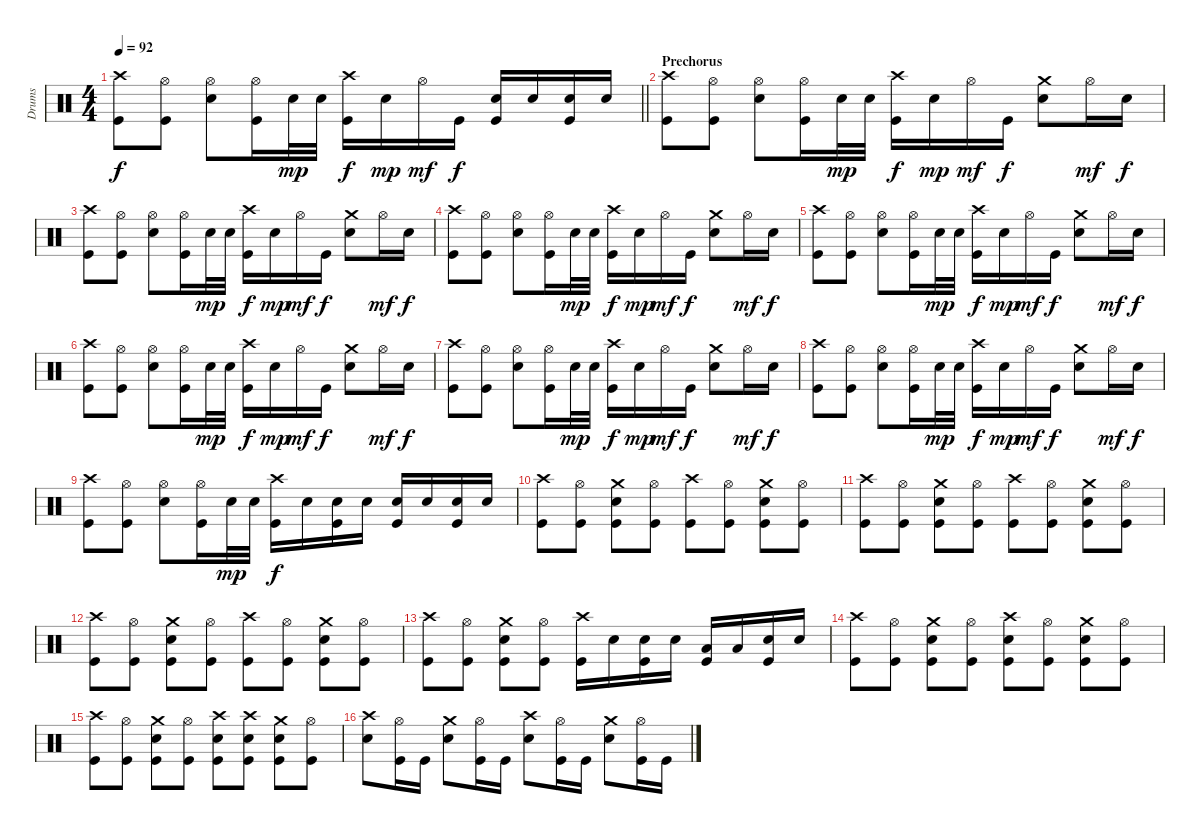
\track ("Drums" "Drums") {instrument percussion}
\staff {score}
\articulation defaults
\ts (4 4)
\tempo 92
\clef neutral
\barLineRight lightlight
\ks c
("Crash high (hit)" "Kick (hit)").8{dy f} ("Hi-Hat (open)" "Kick (hit)").8 ("Hi-Hat (open)" "Electric Snare (hit)").8 ("Hi-Hat (open)" "Kick (hit)").16 "Electric Snare (hit)".32{dy mp} "Electric Snare (hit)".32 ("Crash high (hit)" "Kick (hit)").16{dy f} "Electric Snare (hit)".16{dy mp} "Hi-Hat (open)".16{dy mf} "Kick (hit)".16{dy f} ("Electric Snare (hit)" "Kick (hit)").16 "Electric Snare (hit)".16 ("Electric Snare (hit)" "Kick (hit)").16 "Electric Snare (hit)".16 |
\section ("" "Prechorus")
("Crash high (hit)" "Kick (hit)").8 ("Hi-Hat (open)" "Kick (hit)").8 ("Hi-Hat (open)" "Electric Snare (hit)").8 ("Hi-Hat (open)" "Kick (hit)").16 "Electric Snare (hit)".32{dy mp} "Electric Snare (hit)".32 ("Crash high (hit)" "Kick (hit)").16{dy f} "Electric Snare (hit)".16{dy mp} "Hi-Hat (open)".16{dy mf} "Kick (hit)".16{dy f} ("Crash medium (hit)" "Electric Snare (hit)").8 "Hi-Hat (open)".16{dy mf} "Electric Snare (hit)".16{dy f} |
("Crash high (hit)" "Kick (hit)").8 ("Hi-Hat (open)" "Kick (hit)").8 ("Hi-Hat (open)" "Electric Snare (hit)").8 ("Hi-Hat (open)" "Kick (hit)").16 "Electric Snare (hit)".32{dy mp} "Electric Snare (hit)".32 ("Crash high (hit)" "Kick (hit)").16{dy f} "Electric Snare (hit)".16{dy mp} "Hi-Hat (open)".16{dy mf} "Kick (hit)".16{dy f} ("Crash medium (hit)" "Electric Snare (hit)").8 "Hi-Hat (open)".16{dy mf} "Electric Snare (hit)".16{dy f} |
("Crash high (hit)" "Kick (hit)").8 ("Hi-Hat (open)" "Kick (hit)").8 ("Hi-Hat (open)" "Electric Snare (hit)").8 ("Hi-Hat (open)" "Kick (hit)").16 "Electric Snare (hit)".32{dy mp} "Electric Snare (hit)".32 ("Crash high (hit)" "Kick (hit)").16{dy f} "Electric Snare (hit)".16{dy mp} "Hi-Hat (open)".16{dy mf} "Kick (hit)".16{dy f} ("Crash medium (hit)" "Electric Snare (hit)").8 "Hi-Hat (open)".16{dy mf} "Electric Snare (hit)".16{dy f} |
("Crash high (hit)" "Kick (hit)").8 ("Hi-Hat (open)" "Kick (hit)").8 ("Hi-Hat (open)" "Electric Snare (hit)").8 ("Hi-Hat (open)" "Kick (hit)").16 "Electric Snare (hit)".32{dy mp} "Electric Snare (hit)".32 ("Crash high (hit)" "Kick (hit)").16{dy f} "Electric Snare (hit)".16{dy mp} "Hi-Hat (open)".16{dy mf} "Kick (hit)".16{dy f} ("Crash medium (hit)" "Electric Snare (hit)").8 "Hi-Hat (open)".16{dy mf} "Electric Snare (hit)".16{dy f} |
("Crash high (hit)" "Kick (hit)").8 ("Hi-Hat (open)" "Kick (hit)").8 ("Hi-Hat (open)" "Electric Snare (hit)").8 ("Hi-Hat (open)" "Kick (hit)").16 "Electric Snare (hit)".32{dy mp} "Electric Snare (hit)".32 ("Crash high (hit)" "Kick (hit)").16{dy f} "Electric Snare (hit)".16{dy mp} "Hi-Hat (open)".16{dy mf} "Kick (hit)".16{dy f} ("Crash medium (hit)" "Electric Snare (hit)").8 "Hi-Hat (open)".16{dy mf} "Electric Snare (hit)".16{dy f} |
("Crash high (hit)" "Kick (hit)").8 ("Hi-Hat (open)" "Kick (hit)").8 ("Hi-Hat (open)" "Electric Snare (hit)").8 ("Hi-Hat (open)" "Kick (hit)").16 "Electric Snare (hit)".32{dy mp} "Electric Snare (hit)".32 ("Crash high (hit)" "Kick (hit)").16{dy f} "Electric Snare (hit)".16{dy mp} "Hi-Hat (open)".16{dy mf} "Kick (hit)".16{dy f} ("Crash medium (hit)" "Electric Snare (hit)").8 "Hi-Hat (open)".16{dy mf} "Electric Snare (hit)".16{dy f} |
("Crash high (hit)" "Kick (hit)").8 ("Hi-Hat (open)" "Kick (hit)").8 ("Hi-Hat (open)" "Electric Snare (hit)").8 ("Hi-Hat (open)" "Kick (hit)").16 "Electric Snare (hit)".32{dy mp} "Electric Snare (hit)".32 ("Crash high (hit)" "Kick (hit)").16{dy f} "Electric Snare (hit)".16{dy mp} "Hi-Hat (open)".16{dy mf} "Kick (hit)".16{dy f} ("Crash medium (hit)" "Electric Snare (hit)").8 "Hi-Hat (open)".16{dy mf} "Electric Snare (hit)".16{dy f} |
("Crash high (hit)" "Kick (hit)").8 ("Hi-Hat (open)" "Kick (hit)").8 ("Hi-Hat (open)" "Electric Snare (hit)").8 ("Hi-Hat (open)" "Kick (hit)").16 "Electric Snare (hit)".32{dy mp} "Electric Snare (hit)".32 ("Crash high (hit)" "Kick (hit)").16{dy f} "Electric Snare (hit)".16 ("Electric Snare (hit)" "Kick (hit)").16 "Electric Snare (hit)".16 ("Electric Snare (hit)" "Kick (hit)").16 "Electric Snare (hit)".16 ("Electric Snare (hit)" "Kick (hit)").16 "Electric Snare (hit)".16 |
("Crash high (hit)" "Kick (hit)").8 ("Hi-Hat (open)" "Kick (hit)").8 ("Crash medium (hit)" "Electric Snare (hit)" "Kick (hit)").8 ("Hi-Hat (open)" "Kick (hit)").8 ("Crash high (hit)" "Kick (hit)").8 ("Hi-Hat (open)" "Kick (hit)").8 ("Crash medium (hit)" "Electric Snare (hit)" "Kick (hit)").8 ("Hi-Hat (open)" "Kick (hit)").8 |
("Crash high (hit)" "Kick (hit)").8 ("Hi-Hat (open)" "Kick (hit)").8 ("Crash medium (hit)" "Electric Snare (hit)" "Kick (hit)").8 ("Hi-Hat (open)" "Kick (hit)").8 ("Crash high (hit)" "Kick (hit)").8 ("Hi-Hat (open)" "Kick (hit)").8 ("Crash medium (hit)" "Electric Snare (hit)" "Kick (hit)").8 ("Hi-Hat (open)" "Kick (hit)").8 |
("Crash high (hit)" "Kick (hit)").8 ("Hi-Hat (open)" "Kick (hit)").8 ("Crash medium (hit)" "Electric Snare (hit)" "Kick (hit)").8 ("Hi-Hat (open)" "Kick (hit)").8 ("Crash high (hit)" "Kick (hit)").8 ("Hi-Hat (open)" "Kick (hit)").8 ("Crash medium (hit)" "Electric Snare (hit)" "Kick (hit)").8 ("Hi-Hat (open)" "Kick (hit)").8 |
("Crash high (hit)" "Kick (hit)").8 ("Hi-Hat (open)" "Kick (hit)").8 ("Crash medium (hit)" "Electric Snare (hit)" "Kick (hit)").8 ("Hi-Hat (open)" "Kick (hit)").8 ("Crash high (hit)" "Kick (hit)").16 "Electric Snare (hit)".16 ("Electric Snare (hit)" "Kick (hit)").16 "Electric Snare (hit)".16 ("Low Tom (hit)" "Kick (hit)").16 "Low Tom (hit)".16 ("Electric Snare (hit)" "Kick (hit)").16 "Electric Snare (hit)".16 |
("Crash high (hit)" "Kick (hit)").8 ("Hi-Hat (open)" "Kick (hit)").8 ("Crash medium (hit)" "Electric Snare (hit)" "Kick (hit)").8 ("Hi-Hat (open)" "Kick (hit)").8 ("Crash high (hit)" "Electric Snare (hit)" "Kick (hit)").8 ("Hi-Hat (open)" "Kick (hit)").8 ("Crash medium (hit)" "Electric Snare (hit)" "Kick (hit)").8 ("Hi-Hat (open)" "Kick (hit)").8 |
("Crash high (hit)" "Kick (hit)").8 ("Hi-Hat (open)" "Kick (hit)").8 ("Crash medium (hit)" "Electric Snare (hit)" "Kick (hit)").8 ("Hi-Hat (open)" "Kick (hit)").8 ("Crash high (hit)" "Electric Snare (hit)" "Kick (hit)").8 ("Crash high (hit)" "Electric Snare (hit)" "Kick (hit)").8 ("Crash medium (hit)" "Electric Snare (hit)" "Kick (hit)").8 ("Hi-Hat (open)" "Kick (hit)").8 |
("Crash high (hit)" "Electric Snare (hit)").8 ("Hi-Hat (open)" "Kick (hit)").16 "Kick (hit)".16 ("Crash medium (hit)" "Electric Snare (hit)").8 ("Hi-Hat (open)" "Kick (hit)").16 "Kick (hit)".16 ("Crash high (hit)" "Electric Snare (hit)").8 ("Hi-Hat (open)" "Kick (hit)").16 "Kick (hit)".16 ("Crash medium (hit)" "Electric Snare (hit)").8 ("Hi-Hat (open)" "Kick (hit)").16 "Kick (hit)".16
